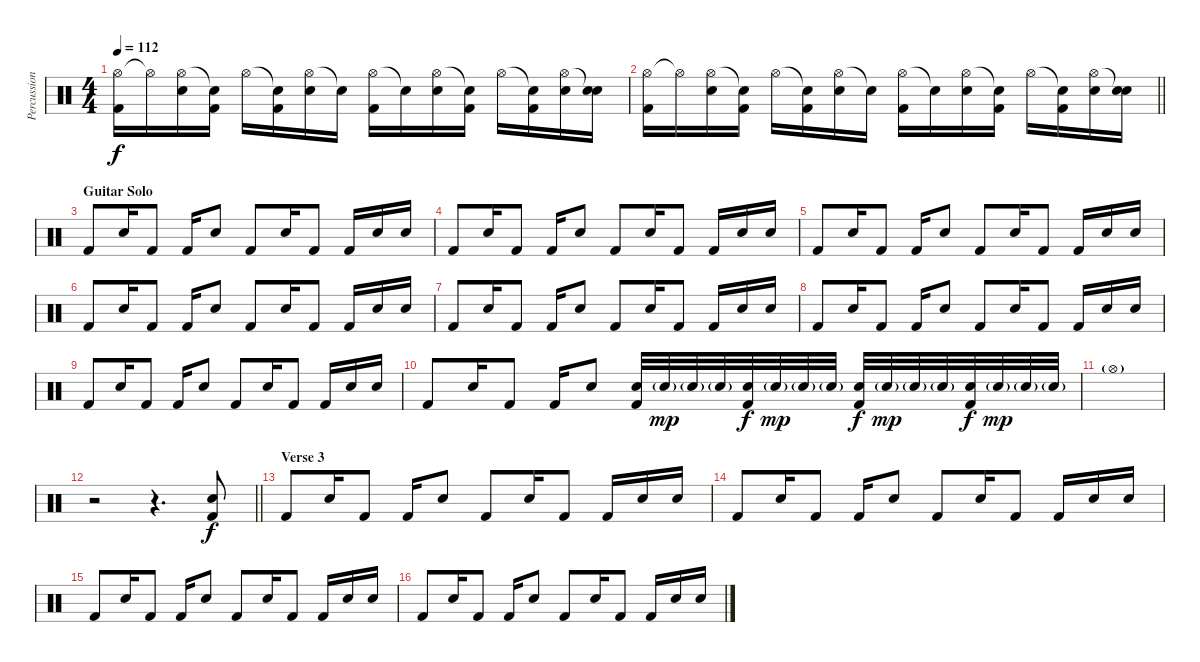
\track ("Percussion" "Percussion") {instrument percussion}
\staff {score}
\articulation defaults
\ts (4 4)
\tempo 112
\clef neutral
\ks c
("Hi-Hat (open)" "Kick (hit) 2").16{dy f} "Hi-Hat (open)"{t}.16 ("Hi-Hat (open)" "Snare (hit) 2").16 ("Snare (hit)"{t} "Kick (hit) 2").16 "Hi-Hat (open)".16 ("Snare (hit)"{t} "Kick (hit) 2").16 ("Hi-Hat (open)" "Snare (hit) 2").16 "Snare (hit)"{t}.16 ("Hi-Hat (open)" "Kick (hit) 2").16 "Snare (hit)"{t}.16 ("Hi-Hat (open)" "Snare (hit) 2").16 ("Snare (hit)"{t} "Kick (hit) 2").16 "Hi-Hat (open)".16 ("Snare (hit)"{t} "Kick (hit) 2").16 ("Hi-Hat (open)" "Snare (hit) 2").16 ("Snare (hit)"{t} "Snare (hit) 2").16 |
\barLineRight lightlight
("Hi-Hat (open)" "Kick (hit) 2").16 "Hi-Hat (open)"{t}.16 ("Hi-Hat (open)" "Snare (hit) 2").16 ("Snare (hit)"{t} "Kick (hit) 2").16 "Hi-Hat (open)".16 ("Snare (hit)"{t} "Kick (hit) 2").16 ("Hi-Hat (open)" "Snare (hit) 2").16 "Snare (hit)"{t}.16 ("Hi-Hat (open)" "Kick (hit) 2").16 "Snare (hit)"{t}.16 ("Hi-Hat (open)" "Snare (hit) 2").16 ("Snare (hit)"{t} "Kick (hit) 2").16 "Hi-Hat (open)".16 ("Snare (hit)"{t} "Kick (hit) 2").16 ("Hi-Hat (open)" "Snare (hit) 2").16 ("Snare (hit)"{t} "Snare (hit) 2").16 |
\section ("" "Guitar Solo")
"Kick (hit) 2".8 "Snare (hit) 2".16 "Kick (hit) 2".8 "Kick (hit) 2".16 "Snare (hit) 2".8 "Kick (hit) 2".8 "Snare (hit) 2".16 "Kick (hit) 2".8 "Kick (hit) 2".16 "Snare (hit) 2".16 "Snare (hit) 2".16 |
"Kick (hit) 2".8 "Snare (hit) 2".16 "Kick (hit) 2".8 "Kick (hit) 2".16 "Snare (hit) 2".8 "Kick (hit) 2".8 "Snare (hit) 2".16 "Kick (hit) 2".8 "Kick (hit) 2".16 "Snare (hit) 2".16 "Snare (hit) 2".16 |
"Kick (hit) 2".8 "Snare (hit) 2".16 "Kick (hit) 2".8 "Kick (hit) 2".16 "Snare (hit) 2".8 "Kick (hit) 2".8 "Snare (hit) 2".16 "Kick (hit) 2".8 "Kick (hit) 2".16 "Snare (hit) 2".16 "Snare (hit) 2".16 |
"Kick (hit) 2".8 "Snare (hit) 2".16 "Kick (hit) 2".8 "Kick (hit) 2".16 "Snare (hit) 2".8 "Kick (hit) 2".8 "Snare (hit) 2".16 "Kick (hit) 2".8 "Kick (hit) 2".16 "Snare (hit) 2".16 "Snare (hit) 2".16 |
"Kick (hit) 2".8 "Snare (hit) 2".16 "Kick (hit) 2".8 "Kick (hit) 2".16 "Snare (hit) 2".8 "Kick (hit) 2".8 "Snare (hit) 2".16 "Kick (hit) 2".8 "Kick (hit) 2".16 "Snare (hit) 2".16 "Snare (hit) 2".16 |
"Kick (hit) 2".8 "Snare (hit) 2".16 "Kick (hit) 2".8 "Kick (hit) 2".16 "Snare (hit) 2".8 "Kick (hit) 2".8 "Snare (hit) 2".16 "Kick (hit) 2".8 "Kick (hit) 2".16 "Snare (hit) 2".16 "Snare (hit) 2".16 |
"Kick (hit) 2".8 "Snare (hit) 2".16 "Kick (hit) 2".8 "Kick (hit) 2".16 "Snare (hit) 2".8 "Kick (hit) 2".8 "Snare (hit) 2".16 "Kick (hit) 2".8 "Kick (hit) 2".16 "Snare (hit) 2".16 "Snare (hit) 2".16 |
"Kick (hit) 2".8 "Snare (hit) 2".16 "Kick (hit) 2".8 "Kick (hit) 2".16 "Snare (hit) 2".8 ("Snare (hit) 2" "Kick (hit) 2").32 "Snare (hit) 2"{g}.32{dy mp} "Snare (hit) 2"{g}.32 "Snare (hit) 2"{g}.32 ("Snare (hit) 2" "Kick (hit) 2").32{dy f} "Snare (hit) 2"{g}.32{dy mp} "Snare (hit) 2"{g}.32 "Snare (hit) 2"{g}.32 ("Snare (hit) 2" "Kick (hit) 2").32{dy f} "Snare (hit) 2"{g}.32{dy mp} "Snare (hit) 2"{g}.32 "Snare (hit) 2"{g}.32 ("Snare (hit) 2" "Kick (hit) 2").32{dy f} "Snare (hit) 2"{g}.32{dy mp} "Snare (hit) 2"{g}.32 "Snare (hit) 2"{g}.32 |
"Hi-Hat (open)"{g}.1 |
\barLineRight lightlight
r.2 r.4{d} ("Snare (hit) 2" "Kick (hit) 2").8{dy f} |
\section ("" "Verse 3")
"Kick (hit) 2".8 "Snare (hit) 2".16 "Kick (hit) 2".8 "Kick (hit) 2".16 "Snare (hit) 2".8 "Kick (hit) 2".8 "Snare (hit) 2".16 "Kick (hit) 2".8 "Kick (hit) 2".16 "Snare (hit) 2".16 "Snare (hit) 2".16 |
"Kick (hit) 2".8 "Snare (hit) 2".16 "Kick (hit) 2".8 "Kick (hit) 2".16 "Snare (hit) 2".8 "Kick (hit) 2".8 "Snare (hit) 2".16 "Kick (hit) 2".8 "Kick (hit) 2".16 "Snare (hit) 2".16 "Snare (hit) 2".16 |
"Kick (hit) 2".8 "Snare (hit) 2".16 "Kick (hit) 2".8 "Kick (hit) 2".16 "Snare (hit) 2".8 "Kick (hit) 2".8 "Snare (hit) 2".16 "Kick (hit) 2".8 "Kick (hit) 2".16 "Snare (hit) 2".16 "Snare (hit) 2".16 |
"Kick (hit) 2".8 "Snare (hit) 2".16 "Kick (hit) 2".8 "Kick (hit) 2".16 "Snare (hit) 2".8 "Kick (hit) 2".8 "Snare (hit) 2".16 "Kick (hit) 2".8 "Kick (hit) 2".16 "Snare (hit) 2".16 "Snare (hit) 2".16
